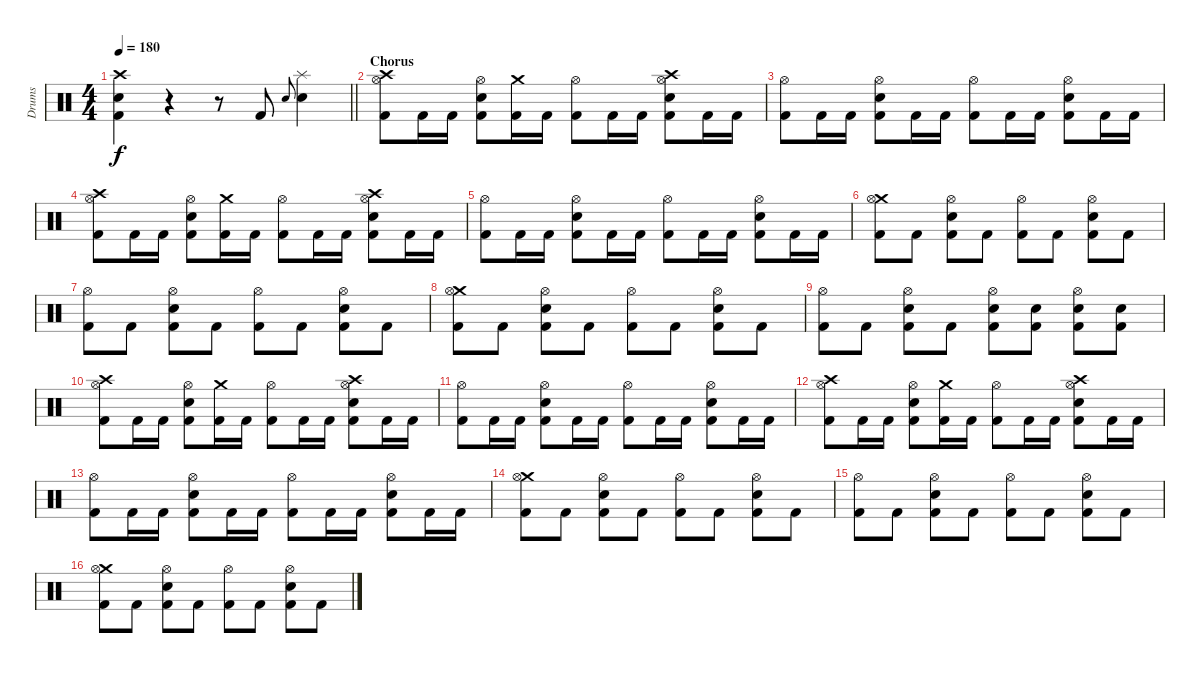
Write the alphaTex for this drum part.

\track ("Drums" "Drums") {instrument percussion}
\staff {score}
\articulation defaults
\ts (4 4)
\tempo 180
\clef neutral
\barLineRight lightlight
\ks c
("Crash high (hit)" "Snare (hit) 2" "Kick (hit) 2").4{dy f} r.4 r.8 "Kick (hit) 2".8 "Snare (hit) 2".8{gr onbeat} ("Splash (hit)" "Snare (hit) 2").4 |
\section ("" "Chorus")
("Crash high (hit)" "Hi-Hat (open)" "Kick (hit) 2").8 "Kick (hit) 2".16 "Kick (hit) 2".16 ("Hi-Hat (open)" "Snare (hit) 2" "Kick (hit) 2").8 ("Crash medium (hit)" "Kick (hit) 2").16 "Kick (hit) 2".16 ("Hi-Hat (open)" "Kick (hit) 2").8 "Kick (hit) 2".16 "Kick (hit) 2".16 ("Crash high (hit)" "Hi-Hat (open)" "Snare (hit) 2" "Kick (hit) 2").8 "Kick (hit) 2".16 "Kick (hit) 2".16 |
("Hi-Hat (open)" "Kick (hit) 2").8 "Kick (hit) 2".16 "Kick (hit) 2".16 ("Hi-Hat (open)" "Snare (hit) 2" "Kick (hit) 2").8 "Kick (hit) 2".16 "Kick (hit) 2".16 ("Hi-Hat (open)" "Kick (hit) 2").8 "Kick (hit) 2".16 "Kick (hit) 2".16 ("Hi-Hat (open)" "Snare (hit) 2" "Kick (hit) 2").8 "Kick (hit) 2".16 "Kick (hit) 2".16 |
("Crash high (hit)" "Hi-Hat (open)" "Kick (hit) 2").8 "Kick (hit) 2".16 "Kick (hit) 2".16 ("Hi-Hat (open)" "Snare (hit) 2" "Kick (hit) 2").8 ("Crash medium (hit)" "Kick (hit) 2").16 "Kick (hit) 2".16 ("Hi-Hat (open)" "Kick (hit) 2").8 "Kick (hit) 2".16 "Kick (hit) 2".16 ("Crash high (hit)" "Hi-Hat (open)" "Snare (hit) 2" "Kick (hit) 2").8 "Kick (hit) 2".16 "Kick (hit) 2".16 |
("Hi-Hat (open)" "Kick (hit) 2").8 "Kick (hit) 2".16 "Kick (hit) 2".16 ("Hi-Hat (open)" "Snare (hit) 2" "Kick (hit) 2").8 "Kick (hit) 2".16 "Kick (hit) 2".16 ("Hi-Hat (open)" "Kick (hit) 2").8 "Kick (hit) 2".16 "Kick (hit) 2".16 ("Hi-Hat (open)" "Snare (hit) 2" "Kick (hit) 2").8 "Kick (hit) 2".16 "Kick (hit) 2".16 |
("Crash medium (hit)" "Hi-Hat (open)" "Kick (hit) 2").8 "Kick (hit) 2".8 ("Hi-Hat (open)" "Snare (hit) 2" "Kick (hit) 2").8 "Kick (hit) 2".8 ("Hi-Hat (open)" "Kick (hit) 2").8 "Kick (hit) 2".8 ("Hi-Hat (open)" "Snare (hit) 2" "Kick (hit) 2").8 "Kick (hit) 2".8 |
("Hi-Hat (open)" "Kick (hit) 2").8 "Kick (hit) 2".8 ("Hi-Hat (open)" "Snare (hit) 2" "Kick (hit) 2").8 "Kick (hit) 2".8 ("Hi-Hat (open)" "Kick (hit) 2").8 "Kick (hit) 2".8 ("Hi-Hat (open)" "Snare (hit) 2" "Kick (hit) 2").8 "Kick (hit) 2".8 |
("Crash medium (hit)" "Hi-Hat (open)" "Kick (hit) 2").8 "Kick (hit) 2".8 ("Hi-Hat (open)" "Snare (hit) 2" "Kick (hit) 2").8 "Kick (hit) 2".8 ("Hi-Hat (open)" "Kick (hit) 2").8 "Kick (hit) 2".8 ("Hi-Hat (open)" "Snare (hit) 2" "Kick (hit) 2").8 "Kick (hit) 2".8 |
("Hi-Hat (open)" "Kick (hit) 2").8 "Kick (hit) 2".8 ("Hi-Hat (open)" "Snare (hit) 2" "Kick (hit) 2").8 "Kick (hit) 2".8 ("Hi-Hat (open)" "Snare (hit) 2" "Kick (hit) 2").8 ("Snare (hit) 2" "Kick (hit) 2").8 ("Hi-Hat (open)" "Snare (hit) 2" "Kick (hit) 2").8 ("Snare (hit) 2" "Kick (hit) 2").8 |
("Crash high (hit)" "Hi-Hat (open)" "Kick (hit) 2").8 "Kick (hit) 2".16 "Kick (hit) 2".16 ("Hi-Hat (open)" "Snare (hit) 2" "Kick (hit) 2").8 ("Crash medium (hit)" "Kick (hit) 2").16 "Kick (hit) 2".16 ("Hi-Hat (open)" "Kick (hit) 2").8 "Kick (hit) 2".16 "Kick (hit) 2".16 ("Crash high (hit)" "Hi-Hat (open)" "Snare (hit) 2" "Kick (hit) 2").8 "Kick (hit) 2".16 "Kick (hit) 2".16 |
("Hi-Hat (open)" "Kick (hit) 2").8 "Kick (hit) 2".16 "Kick (hit) 2".16 ("Hi-Hat (open)" "Snare (hit) 2" "Kick (hit) 2").8 "Kick (hit) 2".16 "Kick (hit) 2".16 ("Hi-Hat (open)" "Kick (hit) 2").8 "Kick (hit) 2".16 "Kick (hit) 2".16 ("Hi-Hat (open)" "Snare (hit) 2" "Kick (hit) 2").8 "Kick (hit) 2".16 "Kick (hit) 2".16 |
("Crash high (hit)" "Hi-Hat (open)" "Kick (hit) 2").8 "Kick (hit) 2".16 "Kick (hit) 2".16 ("Hi-Hat (open)" "Snare (hit) 2" "Kick (hit) 2").8 ("Crash medium (hit)" "Kick (hit) 2").16 "Kick (hit) 2".16 ("Hi-Hat (open)" "Kick (hit) 2").8 "Kick (hit) 2".16 "Kick (hit) 2".16 ("Crash high (hit)" "Hi-Hat (open)" "Snare (hit) 2" "Kick (hit) 2").8 "Kick (hit) 2".16 "Kick (hit) 2".16 |
("Hi-Hat (open)" "Kick (hit) 2").8 "Kick (hit) 2".16 "Kick (hit) 2".16 ("Hi-Hat (open)" "Snare (hit) 2" "Kick (hit) 2").8 "Kick (hit) 2".16 "Kick (hit) 2".16 ("Hi-Hat (open)" "Kick (hit) 2").8 "Kick (hit) 2".16 "Kick (hit) 2".16 ("Hi-Hat (open)" "Snare (hit) 2" "Kick (hit) 2").8 "Kick (hit) 2".16 "Kick (hit) 2".16 |
("Crash medium (hit)" "Hi-Hat (open)" "Kick (hit) 2").8 "Kick (hit) 2".8 ("Hi-Hat (open)" "Snare (hit) 2" "Kick (hit) 2").8 "Kick (hit) 2".8 ("Hi-Hat (open)" "Kick (hit) 2").8 "Kick (hit) 2".8 ("Hi-Hat (open)" "Snare (hit) 2" "Kick (hit) 2").8 "Kick (hit) 2".8 |
("Hi-Hat (open)" "Kick (hit) 2").8 "Kick (hit) 2".8 ("Hi-Hat (open)" "Snare (hit) 2" "Kick (hit) 2").8 "Kick (hit) 2".8 ("Hi-Hat (open)" "Kick (hit) 2").8 "Kick (hit) 2".8 ("Hi-Hat (open)" "Snare (hit) 2" "Kick (hit) 2").8 "Kick (hit) 2".8 |
("Crash medium (hit)" "Hi-Hat (open)" "Kick (hit) 2").8 "Kick (hit) 2".8 ("Hi-Hat (open)" "Snare (hit) 2" "Kick (hit) 2").8 "Kick (hit) 2".8 ("Hi-Hat (open)" "Kick (hit) 2").8 "Kick (hit) 2".8 ("Hi-Hat (open)" "Snare (hit) 2" "Kick (hit) 2").8 "Kick (hit) 2".8
